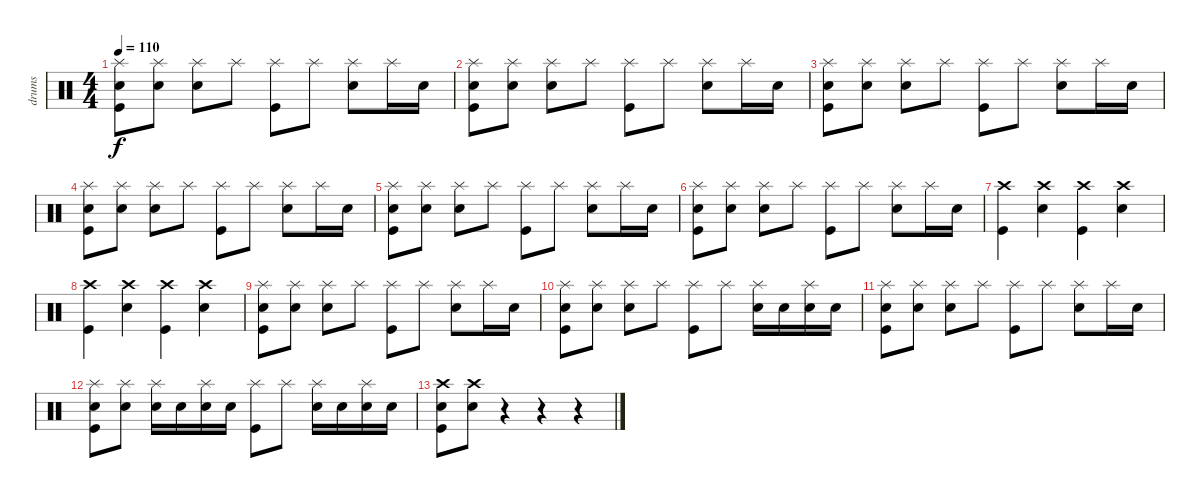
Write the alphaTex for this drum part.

\track ("drums" "drums") {instrument percussion}
\staff {score}
\articulation defaults
\ts (4 4)
\tempo 110
\clef neutral
\ks c
("Splash (hit)" "Snare (hit) 2" "Kick (hit)").8{dy f} ("Splash (hit)" "Snare (hit) 2").8 ("Splash (hit)" "Snare (hit) 2").8 "Splash (hit)".8 ("Splash (hit)" "Kick (hit)").8 "Splash (hit)".8 ("Splash (hit)" "Snare (hit) 2").8 "Splash (hit)".16 "Snare (hit) 2".16 |
("Splash (hit)" "Snare (hit) 2" "Kick (hit)").8 ("Splash (hit)" "Snare (hit) 2").8 ("Splash (hit)" "Snare (hit) 2").8 "Splash (hit)".8 ("Splash (hit)" "Kick (hit)").8 "Splash (hit)".8 ("Splash (hit)" "Snare (hit) 2").8 "Splash (hit)".16 "Snare (hit) 2".16 |
("Splash (hit)" "Snare (hit) 2" "Kick (hit)").8 ("Splash (hit)" "Snare (hit) 2").8 ("Splash (hit)" "Snare (hit) 2").8 "Splash (hit)".8 ("Splash (hit)" "Kick (hit)").8 "Splash (hit)".8 ("Splash (hit)" "Snare (hit) 2").8 "Splash (hit)".16 "Snare (hit) 2".16 |
("Splash (hit)" "Snare (hit) 2" "Kick (hit)").8 ("Splash (hit)" "Snare (hit) 2").8 ("Splash (hit)" "Snare (hit) 2").8 "Splash (hit)".8 ("Splash (hit)" "Kick (hit)").8 "Splash (hit)".8 ("Splash (hit)" "Snare (hit) 2").8 "Splash (hit)".16 "Snare (hit) 2".16 |
("Splash (hit)" "Snare (hit) 2" "Kick (hit)").8 ("Splash (hit)" "Snare (hit) 2").8 ("Splash (hit)" "Snare (hit) 2").8 "Splash (hit)".8 ("Splash (hit)" "Kick (hit)").8 "Splash (hit)".8 ("Splash (hit)" "Snare (hit) 2").8 "Splash (hit)".16 "Snare (hit) 2".16 |
("Splash (hit)" "Snare (hit) 2" "Kick (hit)").8 ("Splash (hit)" "Snare (hit) 2").8 ("Splash (hit)" "Snare (hit) 2").8 "Splash (hit)".8 ("Splash (hit)" "Kick (hit)").8 "Splash (hit)".8 ("Splash (hit)" "Snare (hit) 2").8 "Splash (hit)".16 "Snare (hit) 2".16 |
("Crash high (hit)" "Kick (hit)").4 ("Crash high (hit)" "Snare (hit) 2").4 ("Crash high (hit)" "Kick (hit)").4 ("Crash high (hit)" "Snare (hit) 2").4 |
("Crash high (hit)" "Kick (hit)").4 ("Crash high (hit)" "Snare (hit) 2").4 ("Crash high (hit)" "Kick (hit)").4 ("Crash high (hit)" "Snare (hit) 2").4 |
("Splash (hit)" "Snare (hit) 2" "Kick (hit)").8 ("Splash (hit)" "Snare (hit) 2").8 ("Splash (hit)" "Snare (hit) 2").8 "Splash (hit)".8 ("Splash (hit)" "Kick (hit)").8 "Splash (hit)".8 ("Splash (hit)" "Snare (hit) 2").8 "Splash (hit)".16 "Snare (hit) 2".16 |
("Splash (hit)" "Snare (hit) 2" "Kick (hit)").8 ("Splash (hit)" "Snare (hit) 2").8 ("Splash (hit)" "Snare (hit) 2").8 "Splash (hit)".8 ("Splash (hit)" "Kick (hit)").8 "Splash (hit)".8 ("Splash (hit)" "Snare (hit) 2").16 "Snare (hit) 2".16 ("Splash (hit)" "Snare (hit) 2").16 "Snare (hit) 2".16 |
("Splash (hit)" "Snare (hit) 2" "Kick (hit)").8 ("Splash (hit)" "Snare (hit) 2").8 ("Splash (hit)" "Snare (hit) 2").8 "Splash (hit)".8 ("Splash (hit)" "Kick (hit)").8 "Splash (hit)".8 ("Splash (hit)" "Snare (hit) 2").8 "Splash (hit)".16 "Snare (hit) 2".16 |
("Splash (hit)" "Snare (hit) 2" "Kick (hit)").8 ("Splash (hit)" "Snare (hit) 2").8 ("Splash (hit)" "Snare (hit) 2").16 "Snare (hit) 2".16 ("Splash (hit)" "Snare (hit) 2").16 "Snare (hit) 2".16 ("Splash (hit)" "Kick (hit)").8 "Splash (hit)".8 ("Splash (hit)" "Snare (hit) 2").16 "Snare (hit) 2".16 ("Splash (hit)" "Snare (hit) 2").16 "Snare (hit) 2".16 |
("Crash high (hit)" "Snare (hit) 2" "Kick (hit)").8 ("Crash high (hit)" "Snare (hit) 2").8 r.4 r.4 r.4
